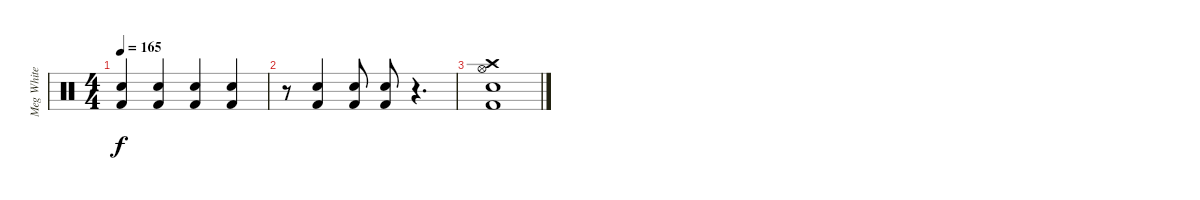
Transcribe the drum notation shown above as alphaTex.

\track ("Meg White" "Meg White") {instrument percussion}
\staff {score}
\articulation defaults
\ts (4 4)
\tempo 165
\clef neutral
\ks c
("Electric Snare (hit)" "Kick (hit) 2").4{dy f} ("Electric Snare (hit)" "Kick (hit) 2").4 ("Electric Snare (hit)" "Kick (hit) 2").4 ("Electric Snare (hit)" "Kick (hit) 2").4 |
r.8 ("Electric Snare (hit)" "Kick (hit) 2").4 ("Electric Snare (hit)" "Kick (hit) 2").8 ("Electric Snare (hit)" "Kick (hit) 2").8 r.4{d} |
("Electric Snare (hit)" "Crash high (hit)" "Hi-Hat (open)" "Kick (hit) 2").1
